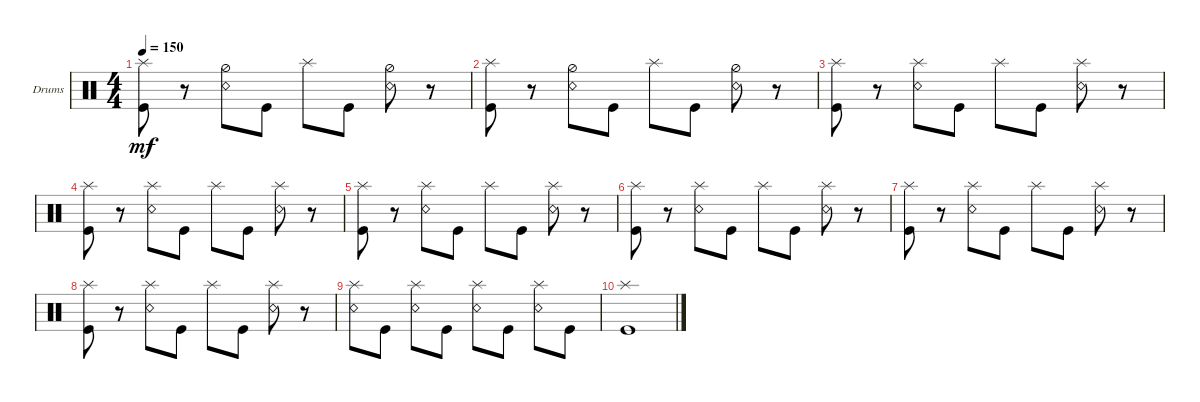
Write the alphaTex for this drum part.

\defaultSystemsLayout 4
\bracketExtendMode groupsimilarinstruments
\firstSystemTrackNameOrientation horizontal
\otherSystemsTrackNameOrientation horizontal
\track ("Drumkit" "Drums") {instrument percussion}
\staff {score}
\articulation defaults
\ts (4 4)
\tempo 150
\clef neutral
\ks c
("Kick (hit)" "Splash (hit)").8{dy mf} r.8 ("Hi-Hat (half)" "Snare (rim shot)").8 "Kick (hit)".8 "Splash (hit)".8 "Kick (hit)".8 ("Hi-Hat (half)" "Snare (rim shot)").8 r.8 |
("Kick (hit)" "Splash (hit)").8 r.8 ("Hi-Hat (half)" "Snare (rim shot)").8 "Kick (hit)".8 "Splash (hit)".8 "Kick (hit)".8 ("Hi-Hat (half)" "Snare (rim shot)").8 r.8 |
("Kick (hit)" "Splash (hit)").8 r.8 ("Snare (rim shot)" "Splash (hit)").8 "Kick (hit)".8 "Splash (hit)".8 "Kick (hit)".8 ("Snare (rim shot)" "Splash (hit)").8 r.8 |
("Kick (hit)" "Splash (hit)").8 r.8 ("Snare (rim shot)" "Splash (hit)").8 "Kick (hit)".8 "Splash (hit)".8 "Kick (hit)".8 ("Snare (rim shot)" "Splash (hit)").8 r.8 |
("Kick (hit)" "Splash (hit)").8 r.8 ("Snare (rim shot)" "Splash (hit)").8 "Kick (hit)".8 "Splash (hit)".8 "Kick (hit)".8 ("Snare (rim shot)" "Splash (hit)").8 r.8 |
("Kick (hit)" "Splash (hit)").8 r.8 ("Snare (rim shot)" "Splash (hit)").8 "Kick (hit)".8 "Splash (hit)".8 "Kick (hit)".8 ("Snare (rim shot)" "Splash (hit)").8 r.8 |
("Kick (hit)" "Splash (hit)").8 r.8 ("Snare (rim shot)" "Splash (hit)").8 "Kick (hit)".8 "Splash (hit)".8 "Kick (hit)".8 ("Snare (rim shot)" "Splash (hit)").8 r.8 |
("Kick (hit)" "Splash (hit)").8 r.8 ("Snare (rim shot)" "Splash (hit)").8 "Kick (hit)".8 "Splash (hit)".8 "Kick (hit)".8 ("Snare (rim shot)" "Splash (hit)").8 r.8 |
("Snare (rim shot)" "Splash (hit)").8 "Kick (hit)".8 ("Snare (rim shot)" "Splash (hit)").8 "Kick (hit)".8 ("Snare (rim shot)" "Splash (hit)").8 "Kick (hit)".8 ("Snare (rim shot)" "Splash (hit)").8 "Kick (hit)".8 |
("Kick (hit)" "Splash (hit)").1
